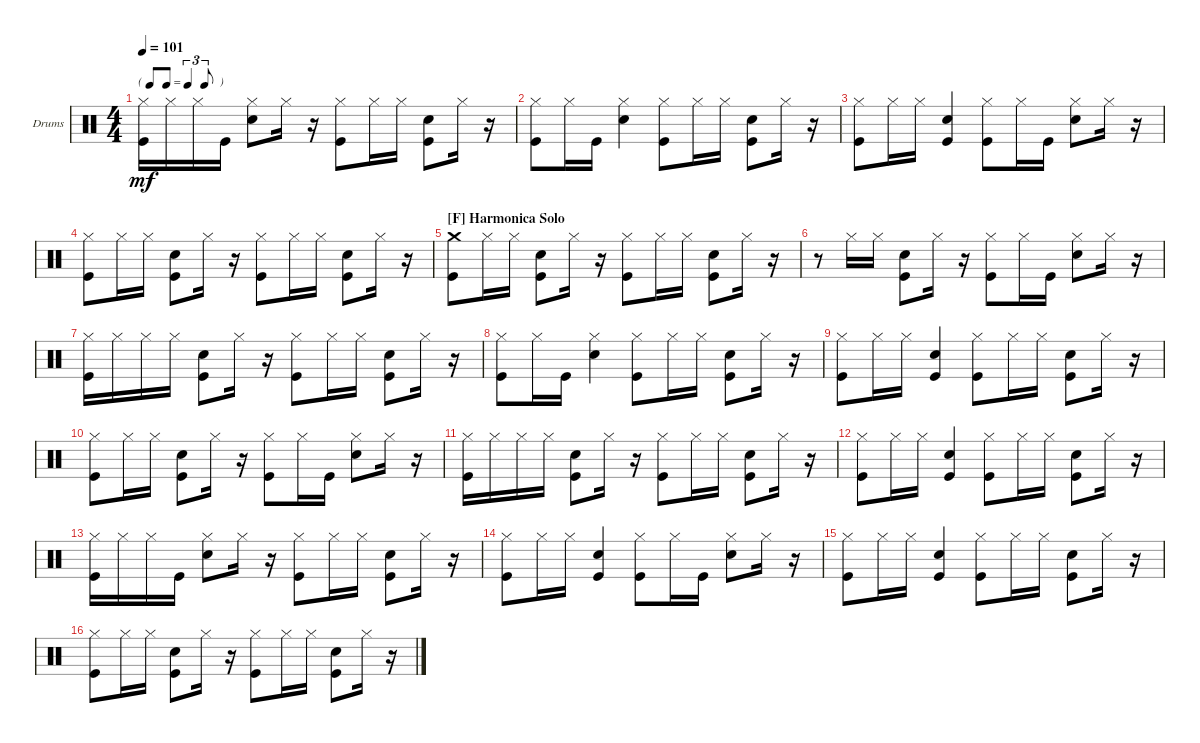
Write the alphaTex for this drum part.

\bracketExtendMode groupsimilarinstruments
\firstSystemTrackNameOrientation horizontal
\otherSystemsTrackNameOrientation horizontal
\track ("Charlie Watts" "Drums") {instrument percussion}
\staff {score}
\articulation defaults
\ts (4 4)
\tf triplet8th
\tempo 101
\clef neutral
\scale
0.333333
\ks c
("Kick (hit)" "Hi-Hat (closed)").16{dy mf} "Hi-Hat (closed)".16 "Hi-Hat (closed)".16 "Kick (hit)".16 ("Hi-Hat (closed)" "Snare (hit) 2").8 "Hi-Hat (closed)".16 r.16 ("Hi-Hat (closed)" "Kick (hit)").8 "Hi-Hat (closed)".16 "Hi-Hat (closed)".16 ("Kick (hit)" "Snare (hit) 2").8 "Hi-Hat (closed)".16 r.16 |
\scale
0.333333 ("Kick (hit)" "Hi-Hat (closed)").8 "Hi-Hat (closed)".16 "Kick (hit)".16 ("Hi-Hat (closed)" "Snare (hit) 2").4 ("Kick (hit)" "Hi-Hat (closed)").8 "Hi-Hat (closed)".16 "Hi-Hat (closed)".16 ("Kick (hit)" "Snare (hit) 2").8 "Hi-Hat (closed)".16 r.16 |
\scale
0.333333 ("Hi-Hat (closed)" "Kick (hit)").8 "Hi-Hat (closed)".16 "Hi-Hat (closed)".16 ("Kick (hit)" "Snare (hit) 2").4 ("Hi-Hat (closed)" "Kick (hit)").8 "Hi-Hat (closed)".16 "Kick (hit)".16 ("Hi-Hat (closed)" "Snare (hit) 2").8 "Hi-Hat (closed)".16 r.16 |
\scale
0.333333 ("Hi-Hat (closed)" "Kick (hit)").8 "Hi-Hat (closed)".16 "Hi-Hat (closed)".16 ("Kick (hit)" "Snare (hit) 2").8 "Hi-Hat (closed)".16 r.16 ("Hi-Hat (closed)" "Kick (hit)").8 "Hi-Hat (closed)".16 "Hi-Hat (closed)".16 ("Kick (hit)" "Snare (hit) 2").8 "Hi-Hat (closed)".16 r.16 |
\section ("F" "Harmonica Solo")
\scale
0.333333 ("Crash medium (hit)" "Kick (hit)").8 "Hi-Hat (closed)".16 "Hi-Hat (closed)".16 ("Kick (hit)" "Snare (hit) 2").8 "Hi-Hat (closed)".16 r.16 ("Hi-Hat (closed)" "Kick (hit)").8 "Hi-Hat (closed)".16 "Hi-Hat (closed)".16 ("Kick (hit)" "Snare (hit) 2").8 "Hi-Hat (closed)".16 r.16 |
\scale
0.333333 r.8 "Hi-Hat (closed)".16 "Hi-Hat (closed)".16 ("Kick (hit)" "Snare (hit) 2").8 "Hi-Hat (closed)".16 r.16 ("Hi-Hat (closed)" "Kick (hit)").8 "Hi-Hat (closed)".16 "Kick (hit)".16 ("Hi-Hat (closed)" "Snare (hit) 2").8 "Hi-Hat (closed)".16 r.16 |
\scale
0.333333 ("Hi-Hat (closed)" "Kick (hit)").16 "Hi-Hat (closed)".16 "Hi-Hat (closed)".16 "Hi-Hat (closed)".16 ("Kick (hit)" "Snare (hit) 2").8 "Hi-Hat (closed)".16 r.16 ("Kick (hit)" "Hi-Hat (closed)").8 "Hi-Hat (closed)".16 "Hi-Hat (closed)".16 ("Kick (hit)" "Snare (hit) 2").8 "Hi-Hat (closed)".16 r.16 |
\scale
0.333333 ("Hi-Hat (closed)" "Kick (hit)").8 "Hi-Hat (closed)".16 "Kick (hit)".16 ("Hi-Hat (closed)" "Snare (hit) 2").4 ("Kick (hit)" "Hi-Hat (closed)").8 "Hi-Hat (closed)".16 "Hi-Hat (closed)".16 ("Kick (hit)" "Snare (hit) 2").8 "Hi-Hat (closed)".16 r.16 |
\scale
0.333333 ("Hi-Hat (closed)" "Kick (hit)").8 "Hi-Hat (closed)".16 "Hi-Hat (closed)".16 ("Kick (hit)" "Snare (hit) 2").4 ("Hi-Hat (closed)" "Kick (hit)").8 "Hi-Hat (closed)".16 "Hi-Hat (closed)".16 ("Kick (hit)" "Snare (hit) 2").8 "Hi-Hat (closed)".16 r.16 |
\scale
0.333333 ("Hi-Hat (closed)" "Kick (hit)").8 "Hi-Hat (closed)".16 "Hi-Hat (closed)".16 ("Kick (hit)" "Snare (hit) 2").8 "Hi-Hat (closed)".16 r.16 ("Hi-Hat (closed)" "Kick (hit)").8 "Hi-Hat (closed)".16 "Kick (hit)".16 ("Hi-Hat (closed)" "Snare (hit) 2").8 "Hi-Hat (closed)".16 r.16 |
\scale
0.333333 ("Hi-Hat (closed)" "Kick (hit)").16 "Hi-Hat (closed)".16 "Hi-Hat (closed)".16 "Hi-Hat (closed)".16 ("Kick (hit)" "Snare (hit) 2").8 "Hi-Hat (closed)".16 r.16 ("Kick (hit)" "Hi-Hat (closed)").8 "Hi-Hat (closed)".16 "Hi-Hat (closed)".16 ("Kick (hit)" "Snare (hit) 2").8 "Hi-Hat (closed)".16 r.16 |
\scale
0.333333 ("Kick (hit)" "Hi-Hat (closed)").8 "Hi-Hat (closed)".16 "Hi-Hat (closed)".16 ("Kick (hit)" "Snare (hit) 2").4 ("Hi-Hat (closed)" "Kick (hit)").8 "Hi-Hat (closed)".16 "Hi-Hat (closed)".16 ("Kick (hit)" "Snare (hit) 2").8 "Hi-Hat (closed)".16 r.16 |
\scale
0.333333 ("Hi-Hat (closed)" "Kick (hit)").16 "Hi-Hat (closed)".16 "Hi-Hat (closed)".16 "Kick (hit)".16 ("Hi-Hat (closed)" "Snare (hit) 2").8 "Hi-Hat (closed)".16 r.16 ("Hi-Hat (closed)" "Kick (hit)").8 "Hi-Hat (closed)".16 "Hi-Hat (closed)".16 ("Kick (hit)" "Snare (hit) 2").8 "Hi-Hat (closed)".16 r.16 |
\scale
0.333333 ("Kick (hit)" "Hi-Hat (closed)").8 "Hi-Hat (closed)".16 "Hi-Hat (closed)".16 ("Kick (hit)" "Snare (hit) 2").4 ("Kick (hit)" "Hi-Hat (closed)").8 "Hi-Hat (closed)".16 "Kick (hit)".16 ("Hi-Hat (closed)" "Snare (hit) 2").8 "Hi-Hat (closed)".16 r.16 |
\scale
0.333333 ("Kick (hit)" "Hi-Hat (closed)").8 "Hi-Hat (closed)".16 "Hi-Hat (closed)".16 ("Kick (hit)" "Snare (hit) 2").4 ("Hi-Hat (closed)" "Kick (hit)").8 "Hi-Hat (closed)".16 "Hi-Hat (closed)".16 ("Kick (hit)" "Snare (hit) 2").8 "Hi-Hat (closed)".16 r.16 |
\scale
0.333333 ("Hi-Hat (closed)" "Kick (hit)").8 "Hi-Hat (closed)".16 "Hi-Hat (closed)".16 ("Kick (hit)" "Snare (hit) 2").8 "Hi-Hat (closed)".16 r.16 ("Hi-Hat (closed)" "Kick (hit)").8 "Hi-Hat (closed)".16 "Hi-Hat (closed)".16 ("Kick (hit)" "Snare (hit) 2").8 "Hi-Hat (closed)".16 r.16
